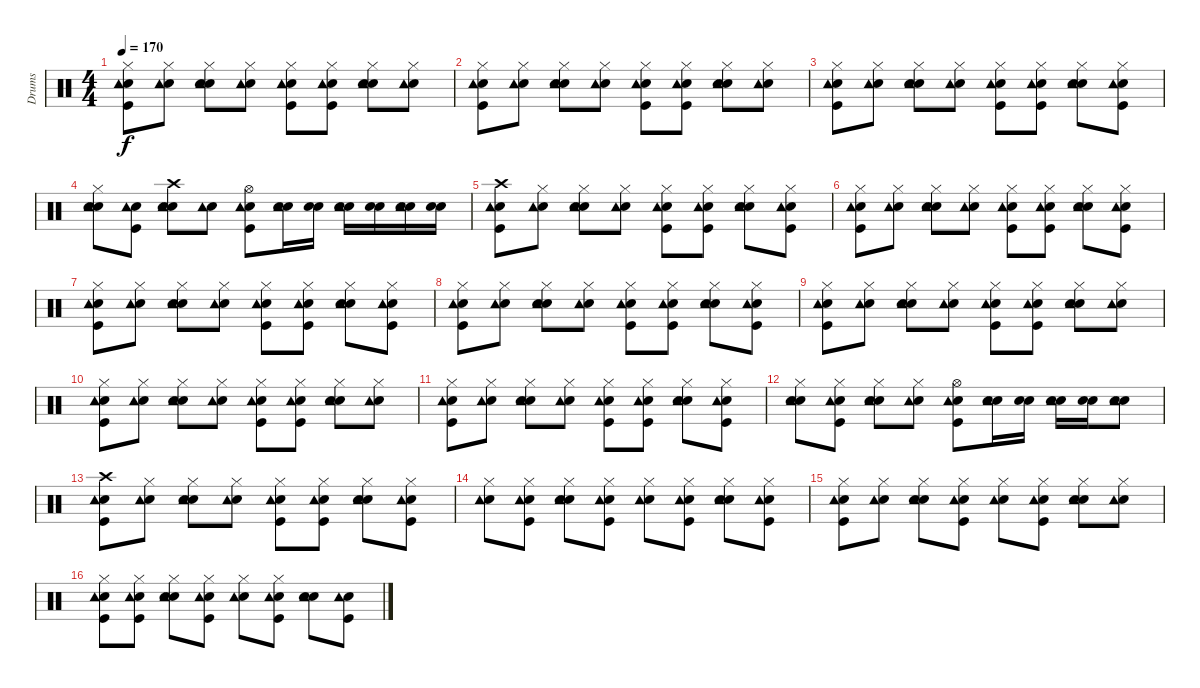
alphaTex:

\track ("Drums" "Drums") {instrument percussion}
\staff {score}
\articulation defaults
\ts (4 4)
\tempo 170
\clef neutral
\ks c
("Snare (hit)" "Kick (hit)" "Tambourine (hit)" "Hi-Hat (closed)").8{dy f} ("Snare (hit)" "Tambourine (hit)" "Hi-Hat (closed)").8 ("Snare (hit)" "Tambourine (hit)" "Electric Snare (hit)" "Hi-Hat (closed)").8 ("Snare (hit)" "Tambourine (hit)" "Hi-Hat (closed)").8 ("Snare (hit)" "Kick (hit)" "Tambourine (hit)" "Hi-Hat (closed)").8 ("Snare (hit)" "Kick (hit)" "Tambourine (hit)" "Hi-Hat (closed)").8 ("Snare (hit)" "Tambourine (hit)" "Electric Snare (hit)" "Hi-Hat (closed)").8 ("Snare (hit)" "Tambourine (hit)" "Hi-Hat (closed)").8 |
("Snare (hit)" "Kick (hit)" "Tambourine (hit)" "Hi-Hat (closed)").8 ("Snare (hit)" "Tambourine (hit)" "Hi-Hat (closed)").8 ("Snare (hit)" "Tambourine (hit)" "Electric Snare (hit)" "Hi-Hat (closed)").8 ("Snare (hit)" "Tambourine (hit)" "Hi-Hat (closed)").8 ("Snare (hit)" "Kick (hit)" "Tambourine (hit)" "Hi-Hat (closed)").8 ("Snare (hit)" "Kick (hit)" "Tambourine (hit)" "Hi-Hat (closed)").8 ("Snare (hit)" "Tambourine (hit)" "Electric Snare (hit)" "Hi-Hat (closed)").8 ("Snare (hit)" "Tambourine (hit)" "Hi-Hat (closed)").8 |
("Snare (hit)" "Kick (hit)" "Tambourine (hit)" "Hi-Hat (closed)").8 ("Snare (hit)" "Tambourine (hit)" "Hi-Hat (closed)").8 ("Snare (hit)" "Tambourine (hit)" "Electric Snare (hit)" "Hi-Hat (closed)").8 ("Snare (hit)" "Tambourine (hit)" "Hi-Hat (closed)").8 ("Snare (hit)" "Kick (hit)" "Tambourine (hit)" "Hi-Hat (closed)").8 ("Snare (hit)" "Kick (hit)" "Tambourine (hit)" "Hi-Hat (closed)").8 ("Snare (hit)" "Tambourine (hit)" "Electric Snare (hit)" "Hi-Hat (closed)").8 ("Snare (hit)" "Kick (hit)" "Tambourine (hit)" "Hi-Hat (closed)").8 |
("Snare (hit)" "Tambourine (hit)" "Electric Snare (hit)" "Hi-Hat (closed)").8 ("Snare (hit)" "Kick (hit)" "Tambourine (hit)").8 ("Snare (hit)" "Tambourine (hit)" "Electric Snare (hit)" "Crash high (hit)").8 ("Snare (hit)" "Tambourine (hit)").8 ("Snare (hit)" "Kick (hit)" "Tambourine (hit)" "Hi-Hat (open)").8 ("Snare (hit)" "Tambourine (hit)" "Electric Snare (hit)").16 ("Snare (hit)" "Electric Snare (hit)").16 ("Snare (hit)" "Tambourine (hit)" "Electric Snare (hit)").16 ("Snare (hit)" "Electric Snare (hit)").16 ("Snare (hit)" "Tambourine (hit)" "Electric Snare (hit)").16 ("Snare (hit)" "Electric Snare (hit)").16 |
("Snare (hit)" "Kick (hit)" "Tambourine (hit)" "Crash high (hit)").8 ("Snare (hit)" "Tambourine (hit)" "Hi-Hat (closed)").8 ("Snare (hit)" "Tambourine (hit)" "Electric Snare (hit)" "Hi-Hat (closed)").8 ("Snare (hit)" "Tambourine (hit)" "Hi-Hat (closed)").8 ("Snare (hit)" "Kick (hit)" "Tambourine (hit)" "Hi-Hat (closed)").8 ("Snare (hit)" "Kick (hit)" "Tambourine (hit)" "Hi-Hat (closed)").8 ("Snare (hit)" "Tambourine (hit)" "Electric Snare (hit)" "Hi-Hat (closed)").8 ("Snare (hit)" "Kick (hit)" "Tambourine (hit)" "Hi-Hat (closed)").8 |
("Snare (hit)" "Kick (hit)" "Tambourine (hit)" "Hi-Hat (closed)").8 ("Snare (hit)" "Tambourine (hit)" "Hi-Hat (closed)").8 ("Snare (hit)" "Tambourine (hit)" "Electric Snare (hit)" "Hi-Hat (closed)").8 ("Snare (hit)" "Tambourine (hit)" "Hi-Hat (closed)").8 ("Snare (hit)" "Kick (hit)" "Tambourine (hit)" "Hi-Hat (closed)").8 ("Snare (hit)" "Kick (hit)" "Tambourine (hit)" "Hi-Hat (closed)").8 ("Snare (hit)" "Tambourine (hit)" "Electric Snare (hit)" "Hi-Hat (closed)").8 ("Snare (hit)" "Kick (hit)" "Tambourine (hit)" "Hi-Hat (closed)").8 |
("Snare (hit)" "Kick (hit)" "Tambourine (hit)" "Hi-Hat (closed)").8 ("Snare (hit)" "Tambourine (hit)" "Hi-Hat (closed)").8 ("Snare (hit)" "Tambourine (hit)" "Electric Snare (hit)" "Hi-Hat (closed)").8 ("Snare (hit)" "Tambourine (hit)" "Hi-Hat (closed)").8 ("Snare (hit)" "Kick (hit)" "Tambourine (hit)" "Hi-Hat (closed)").8 ("Snare (hit)" "Kick (hit)" "Tambourine (hit)" "Hi-Hat (closed)").8 ("Snare (hit)" "Tambourine (hit)" "Electric Snare (hit)" "Hi-Hat (closed)").8 ("Snare (hit)" "Kick (hit)" "Tambourine (hit)" "Hi-Hat (closed)").8 |
("Snare (hit)" "Kick (hit)" "Tambourine (hit)" "Hi-Hat (closed)").8 ("Snare (hit)" "Tambourine (hit)" "Hi-Hat (closed)").8 ("Snare (hit)" "Tambourine (hit)" "Electric Snare (hit)" "Hi-Hat (closed)").8 ("Snare (hit)" "Tambourine (hit)" "Hi-Hat (closed)").8 ("Snare (hit)" "Kick (hit)" "Tambourine (hit)" "Hi-Hat (closed)").8 ("Snare (hit)" "Kick (hit)" "Tambourine (hit)" "Hi-Hat (closed)").8 ("Snare (hit)" "Tambourine (hit)" "Electric Snare (hit)" "Hi-Hat (closed)").8 ("Snare (hit)" "Kick (hit)" "Tambourine (hit)" "Hi-Hat (closed)").8 |
("Snare (hit)" "Kick (hit)" "Tambourine (hit)" "Hi-Hat (closed)").8 ("Snare (hit)" "Tambourine (hit)" "Hi-Hat (closed)").8 ("Snare (hit)" "Tambourine (hit)" "Electric Snare (hit)" "Hi-Hat (closed)").8 ("Snare (hit)" "Tambourine (hit)" "Hi-Hat (closed)").8 ("Snare (hit)" "Kick (hit)" "Tambourine (hit)" "Hi-Hat (closed)").8 ("Snare (hit)" "Kick (hit)" "Tambourine (hit)" "Hi-Hat (closed)").8 ("Snare (hit)" "Tambourine (hit)" "Electric Snare (hit)" "Hi-Hat (closed)").8 ("Snare (hit)" "Tambourine (hit)" "Hi-Hat (closed)").8 |
("Snare (hit)" "Kick (hit)" "Tambourine (hit)" "Hi-Hat (closed)").8 ("Snare (hit)" "Tambourine (hit)" "Hi-Hat (closed)").8 ("Snare (hit)" "Tambourine (hit)" "Electric Snare (hit)" "Hi-Hat (closed)").8 ("Snare (hit)" "Tambourine (hit)" "Hi-Hat (closed)").8 ("Snare (hit)" "Kick (hit)" "Tambourine (hit)" "Hi-Hat (closed)").8 ("Snare (hit)" "Kick (hit)" "Tambourine (hit)" "Hi-Hat (closed)").8 ("Snare (hit)" "Tambourine (hit)" "Electric Snare (hit)" "Hi-Hat (closed)").8 ("Snare (hit)" "Tambourine (hit)" "Hi-Hat (closed)").8 |
("Snare (hit)" "Kick (hit)" "Tambourine (hit)" "Hi-Hat (closed)").8 ("Snare (hit)" "Tambourine (hit)" "Hi-Hat (closed)").8 ("Snare (hit)" "Tambourine (hit)" "Electric Snare (hit)" "Hi-Hat (closed)").8 ("Snare (hit)" "Tambourine (hit)" "Hi-Hat (closed)").8 ("Snare (hit)" "Kick (hit)" "Tambourine (hit)" "Hi-Hat (closed)").8 ("Snare (hit)" "Kick (hit)" "Tambourine (hit)" "Hi-Hat (closed)").8 ("Snare (hit)" "Tambourine (hit)" "Electric Snare (hit)" "Hi-Hat (closed)").8 ("Snare (hit)" "Kick (hit)" "Tambourine (hit)" "Hi-Hat (closed)").8 |
("Snare (hit)" "Tambourine (hit)" "Electric Snare (hit)" "Hi-Hat (closed)").8 ("Snare (hit)" "Kick (hit)" "Tambourine (hit)" "Hi-Hat (closed)").8 ("Snare (hit)" "Electric Snare (hit)" "Hi-Hat (closed)" "Tambourine (hit)").8 ("Snare (hit)" "Hi-Hat (closed)" "Tambourine (hit)").8 ("Snare (hit)" "Hi-Hat (open)" "Kick (hit)" "Tambourine (hit)").8 ("Snare (hit)" "Tambourine (hit)" "Electric Snare (hit)").16 ("Snare (hit)" "Electric Snare (hit)").16 ("Snare (hit)" "Tambourine (hit)" "Electric Snare (hit)").16 ("Snare (hit)" "Electric Snare (hit)").16 ("Snare (hit)" "Tambourine (hit)" "Electric Snare (hit)").8 |
("Snare (hit)" "Kick (hit)" "Crash high (hit)" "Tambourine (hit)").8 ("Snare (hit)" "Hi-Hat (closed)" "Tambourine (hit)").8 ("Snare (hit)" "Electric Snare (hit)" "Hi-Hat (closed)" "Tambourine (hit)").8 ("Snare (hit)" "Hi-Hat (closed)" "Tambourine (hit)").8 ("Snare (hit)" "Kick (hit)" "Hi-Hat (closed)" "Tambourine (hit)").8 ("Snare (hit)" "Kick (hit)" "Hi-Hat (closed)" "Tambourine (hit)").8 ("Snare (hit)" "Electric Snare (hit)" "Hi-Hat (closed)" "Tambourine (hit)").8 ("Snare (hit)" "Kick (hit)" "Hi-Hat (closed)" "Tambourine (hit)").8 |
("Snare (hit)" "Hi-Hat (closed)" "Tambourine (hit)").8 ("Snare (hit)" "Kick (hit)" "Hi-Hat (closed)" "Tambourine (hit)").8 ("Snare (hit)" "Electric Snare (hit)" "Hi-Hat (closed)" "Tambourine (hit)").8 ("Snare (hit)" "Kick (hit)" "Hi-Hat (closed)" "Tambourine (hit)").8 ("Snare (hit)" "Hi-Hat (closed)" "Tambourine (hit)").8 ("Snare (hit)" "Kick (hit)" "Hi-Hat (closed)" "Tambourine (hit)").8 ("Snare (hit)" "Electric Snare (hit)" "Hi-Hat (closed)" "Tambourine (hit)").8 ("Snare (hit)" "Kick (hit)" "Hi-Hat (closed)" "Tambourine (hit)").8 |
("Snare (hit)" "Kick (hit)" "Hi-Hat (closed)" "Tambourine (hit)").8 ("Snare (hit)" "Hi-Hat (closed)" "Tambourine (hit)").8 ("Snare (hit)" "Electric Snare (hit)" "Hi-Hat (closed)" "Tambourine (hit)").8 ("Snare (hit)" "Kick (hit)" "Hi-Hat (closed)" "Tambourine (hit)").8 ("Snare (hit)" "Hi-Hat (closed)" "Tambourine (hit)").8 ("Snare (hit)" "Kick (hit)" "Hi-Hat (closed)" "Tambourine (hit)").8 ("Snare (hit)" "Electric Snare (hit)" "Hi-Hat (closed)" "Tambourine (hit)").8 ("Snare (hit)" "Hi-Hat (closed)" "Tambourine (hit)").8 |
("Snare (hit)" "Kick (hit)" "Hi-Hat (closed)" "Tambourine (hit)").8 ("Snare (hit)" "Kick (hit)" "Hi-Hat (closed)" "Tambourine (hit)").8 ("Snare (hit)" "Electric Snare (hit)" "Hi-Hat (closed)" "Tambourine (hit)").8 ("Snare (hit)" "Kick (hit)" "Hi-Hat (closed)" "Tambourine (hit)").8 ("Snare (hit)" "Hi-Hat (closed)" "Tambourine (hit)").8 ("Snare (hit)" "Kick (hit)" "Hi-Hat (closed)" "Tambourine (hit)").8 ("Snare (hit)" "Electric Snare (hit)" "Tambourine (hit)").8 ("Snare (hit)" "Kick (hit)" "Tambourine (hit)").8
